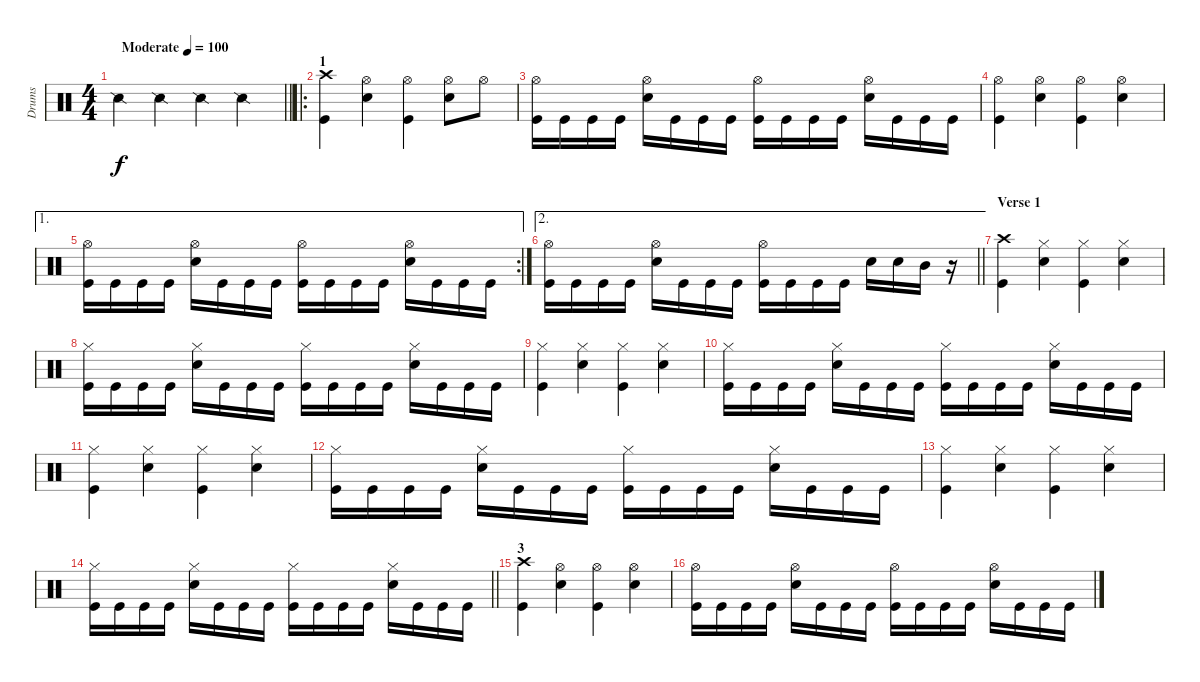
\track ("Drums" "Drums") {instrument percussion}
\staff {score}
\articulation defaults
\ts (4 4)
\tempo (100 "Moderate")
\clef neutral
\barLineRight lightlight
\ks c "Snare (side stick) 2".4{dy f} "Snare (side stick) 2".4 "Snare (side stick) 2".4 "Snare (side stick) 2".4
|
\ro
\section ("" "1")
("Crash high (hit)" "Kick (hit)").4 ("Hi-Hat (open)" "Electric Snare (hit)").4 ("Hi-Hat (open)" "Kick (hit)").4 ("Hi-Hat (open)" "Electric Snare (hit)").8 "Hi-Hat (open)".8 |
("Hi-Hat (open)" "Kick (hit)").16 "Kick (hit)".16 "Kick (hit)".16 "Kick (hit)".16 ("Hi-Hat (open)" "Electric Snare (hit)").16 "Kick (hit)".16 "Kick (hit)".16 "Kick (hit)".16 ("Hi-Hat (open)" "Kick (hit)").16 "Kick (hit)".16 "Kick (hit)".16 "Kick (hit)".16 ("Hi-Hat (open)" "Electric Snare (hit)").16 "Kick (hit)".16 "Kick (hit)".16 "Kick (hit)".16 |
("Hi-Hat (open)" "Kick (hit)").4 ("Hi-Hat (open)" "Electric Snare (hit)").4 ("Hi-Hat (open)" "Kick (hit)").4 ("Hi-Hat (open)" "Electric Snare (hit)").4 |
\ae 1
\rc 2
("Hi-Hat (open)" "Kick (hit)").16 "Kick (hit)".16 "Kick (hit)".16 "Kick (hit)".16 ("Hi-Hat (open)" "Electric Snare (hit)").16 "Kick (hit)".16 "Kick (hit)".16 "Kick (hit)".16 ("Hi-Hat (open)" "Kick (hit)").16 "Kick (hit)".16 "Kick (hit)".16 "Kick (hit)".16 ("Hi-Hat (open)" "Electric Snare (hit)").16 "Kick (hit)".16 "Kick (hit)".16 "Kick (hit)".16 |
\ae 2
\barLineRight lightlight
("Hi-Hat (open)" "Kick (hit)").16 "Kick (hit)".16 "Kick (hit)".16 "Kick (hit)".16 ("Hi-Hat (open)" "Electric Snare (hit)").16 "Kick (hit)".16 "Kick (hit)".16 "Kick (hit)".16 ("Hi-Hat (open)" "Kick (hit)").16 "Kick (hit)".16 "Kick (hit)".16 "Kick (hit)".16 "Electric Snare (hit)".16 "Electric Snare (hit)".16 "Mid Tom (hit)".16 r.16 |
\section ("" "Verse 1")
("Crash high (hit)" "Kick (hit)").4 ("Hi-Hat (closed)" "Electric Snare (hit)").4 ("Hi-Hat (closed)" "Kick (hit)").4 ("Hi-Hat (closed)" "Electric Snare (hit)").4 |
("Hi-Hat (closed)" "Kick (hit)").16 "Kick (hit)".16 "Kick (hit)".16 "Kick (hit)".16 ("Hi-Hat (closed)" "Electric Snare (hit)").16 "Kick (hit)".16 "Kick (hit)".16 "Kick (hit)".16 ("Hi-Hat (closed)" "Kick (hit)").16 "Kick (hit)".16 "Kick (hit)".16 "Kick (hit)".16 ("Hi-Hat (closed)" "Electric Snare (hit)").16 "Kick (hit)".16 "Kick (hit)".16 "Kick (hit)".16 |
("Hi-Hat (closed)" "Kick (hit)").4 ("Hi-Hat (closed)" "Electric Snare (hit)").4 ("Hi-Hat (closed)" "Kick (hit)").4 ("Hi-Hat (closed)" "Electric Snare (hit)").4 |
("Hi-Hat (closed)" "Kick (hit)").16 "Kick (hit)".16 "Kick (hit)".16 "Kick (hit)".16 ("Hi-Hat (closed)" "Electric Snare (hit)").16 "Kick (hit)".16 "Kick (hit)".16 "Kick (hit)".16 ("Hi-Hat (closed)" "Kick (hit)").16 "Kick (hit)".16 "Kick (hit)".16 "Kick (hit)".16 ("Hi-Hat (closed)" "Electric Snare (hit)").16 "Kick (hit)".16 "Kick (hit)".16 "Kick (hit)".16 |
("Hi-Hat (closed)" "Kick (hit)").4 ("Hi-Hat (closed)" "Electric Snare (hit)").4 ("Hi-Hat (closed)" "Kick (hit)").4 ("Hi-Hat (closed)" "Electric Snare (hit)").4 |
("Hi-Hat (closed)" "Kick (hit)").16 "Kick (hit)".16 "Kick (hit)".16 "Kick (hit)".16 ("Hi-Hat (closed)" "Electric Snare (hit)").16 "Kick (hit)".16 "Kick (hit)".16 "Kick (hit)".16 ("Hi-Hat (closed)" "Kick (hit)").16 "Kick (hit)".16 "Kick (hit)".16 "Kick (hit)".16 ("Hi-Hat (closed)" "Electric Snare (hit)").16 "Kick (hit)".16 "Kick (hit)".16 "Kick (hit)".16 |
("Hi-Hat (closed)" "Kick (hit)").4 ("Hi-Hat (closed)" "Electric Snare (hit)").4 ("Hi-Hat (closed)" "Kick (hit)").4 ("Hi-Hat (closed)" "Electric Snare (hit)").4 |
\barLineRight lightlight
("Hi-Hat (closed)" "Kick (hit)").16 "Kick (hit)".16 "Kick (hit)".16 "Kick (hit)".16 ("Hi-Hat (closed)" "Electric Snare (hit)").16 "Kick (hit)".16 "Kick (hit)".16 "Kick (hit)".16 ("Hi-Hat (closed)" "Kick (hit)").16 "Kick (hit)".16 "Kick (hit)".16 "Kick (hit)".16 ("Hi-Hat (closed)" "Electric Snare (hit)").16 "Kick (hit)".16 "Kick (hit)".16 "Kick (hit)".16 |
\section ("" "3")
("Crash high (hit)" "Kick (hit)").4 ("Hi-Hat (open)" "Electric Snare (hit)").4 ("Hi-Hat (open)" "Kick (hit)").4 ("Hi-Hat (open)" "Electric Snare (hit)").4 |
("Hi-Hat (open)" "Kick (hit)").16 "Kick (hit)".16 "Kick (hit)".16 "Kick (hit)".16 ("Hi-Hat (open)" "Electric Snare (hit)").16 "Kick (hit)".16 "Kick (hit)".16 "Kick (hit)".16 ("Hi-Hat (open)" "Kick (hit)").16 "Kick (hit)".16 "Kick (hit)".16 "Kick (hit)".16 ("Hi-Hat (open)" "Electric Snare (hit)").16 "Kick (hit)".16 "Kick (hit)".16 "Kick (hit)".16
